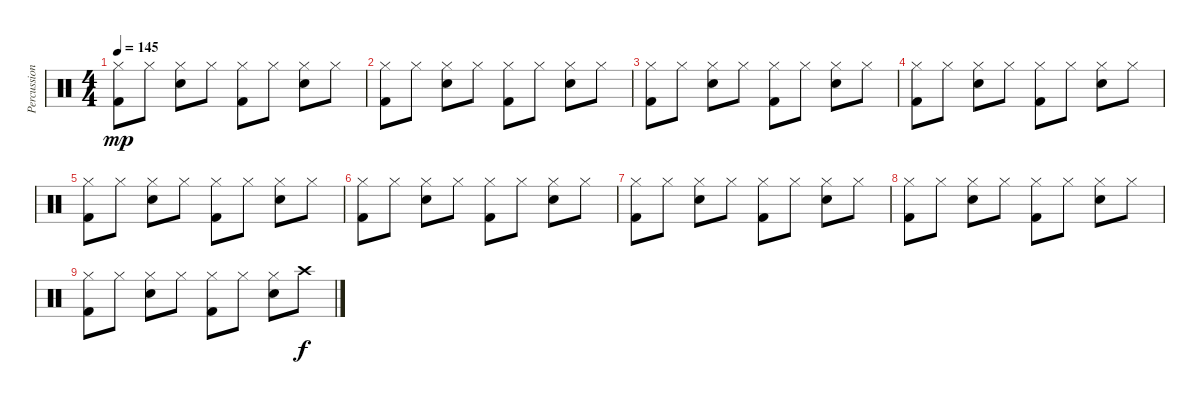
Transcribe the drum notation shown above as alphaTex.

\track ("Percussion" "Percussion") {instrument percussion}
\staff {score}
\articulation defaults
\ts (4 4)
\tempo 145
\clef neutral
\ks c
("Hi-Hat (closed)" "Kick (hit) 2").8{dy mp} "Hi-Hat (closed)".8 ("Hi-Hat (closed)" "Snare (hit) 2").8 "Hi-Hat (closed)".8 ("Hi-Hat (closed)" "Kick (hit) 2").8 "Hi-Hat (closed)".8 ("Hi-Hat (closed)" "Snare (hit) 2").8 "Hi-Hat (closed)".8 |
("Hi-Hat (closed)" "Kick (hit) 2").8 "Hi-Hat (closed)".8 ("Hi-Hat (closed)" "Snare (hit) 2").8 "Hi-Hat (closed)".8 ("Hi-Hat (closed)" "Kick (hit) 2").8 "Hi-Hat (closed)".8 ("Hi-Hat (closed)" "Snare (hit) 2").8 "Hi-Hat (closed)".8 |
("Hi-Hat (closed)" "Kick (hit) 2").8 "Hi-Hat (closed)".8 ("Hi-Hat (closed)" "Snare (hit) 2").8 "Hi-Hat (closed)".8 ("Hi-Hat (closed)" "Kick (hit) 2").8 "Hi-Hat (closed)".8 ("Hi-Hat (closed)" "Snare (hit) 2").8 "Hi-Hat (closed)".8 |
("Hi-Hat (closed)" "Kick (hit) 2").8 "Hi-Hat (closed)".8 ("Hi-Hat (closed)" "Snare (hit) 2").8 "Hi-Hat (closed)".8 ("Hi-Hat (closed)" "Kick (hit) 2").8 "Hi-Hat (closed)".8 ("Hi-Hat (closed)" "Snare (hit) 2").8 "Hi-Hat (closed)".8 |
("Hi-Hat (closed)" "Kick (hit) 2").8 "Hi-Hat (closed)".8 ("Hi-Hat (closed)" "Snare (hit) 2").8 "Hi-Hat (closed)".8 ("Hi-Hat (closed)" "Kick (hit) 2").8 "Hi-Hat (closed)".8 ("Hi-Hat (closed)" "Snare (hit) 2").8 "Hi-Hat (closed)".8 |
("Hi-Hat (closed)" "Kick (hit) 2").8 "Hi-Hat (closed)".8 ("Hi-Hat (closed)" "Snare (hit) 2").8 "Hi-Hat (closed)".8 ("Hi-Hat (closed)" "Kick (hit) 2").8 "Hi-Hat (closed)".8 ("Hi-Hat (closed)" "Snare (hit) 2").8 "Hi-Hat (closed)".8 |
("Hi-Hat (closed)" "Kick (hit) 2").8 "Hi-Hat (closed)".8 ("Hi-Hat (closed)" "Snare (hit) 2").8 "Hi-Hat (closed)".8 ("Hi-Hat (closed)" "Kick (hit) 2").8 "Hi-Hat (closed)".8 ("Hi-Hat (closed)" "Snare (hit) 2").8 "Hi-Hat (closed)".8 |
("Hi-Hat (closed)" "Kick (hit) 2").8 "Hi-Hat (closed)".8 ("Hi-Hat (closed)" "Snare (hit) 2").8 "Hi-Hat (closed)".8 ("Hi-Hat (closed)" "Kick (hit) 2").8 "Hi-Hat (closed)".8 ("Hi-Hat (closed)" "Snare (hit) 2").8 "Hi-Hat (closed)".8 |
("Hi-Hat (closed)" "Kick (hit) 2").8 "Hi-Hat (closed)".8 ("Hi-Hat (closed)" "Snare (hit) 2").8 "Hi-Hat (closed)".8 ("Hi-Hat (closed)" "Kick (hit) 2").8 "Hi-Hat (closed)".8 ("Hi-Hat (closed)" "Snare (hit) 2").8 "Crash high (hit)".8{dy f}
